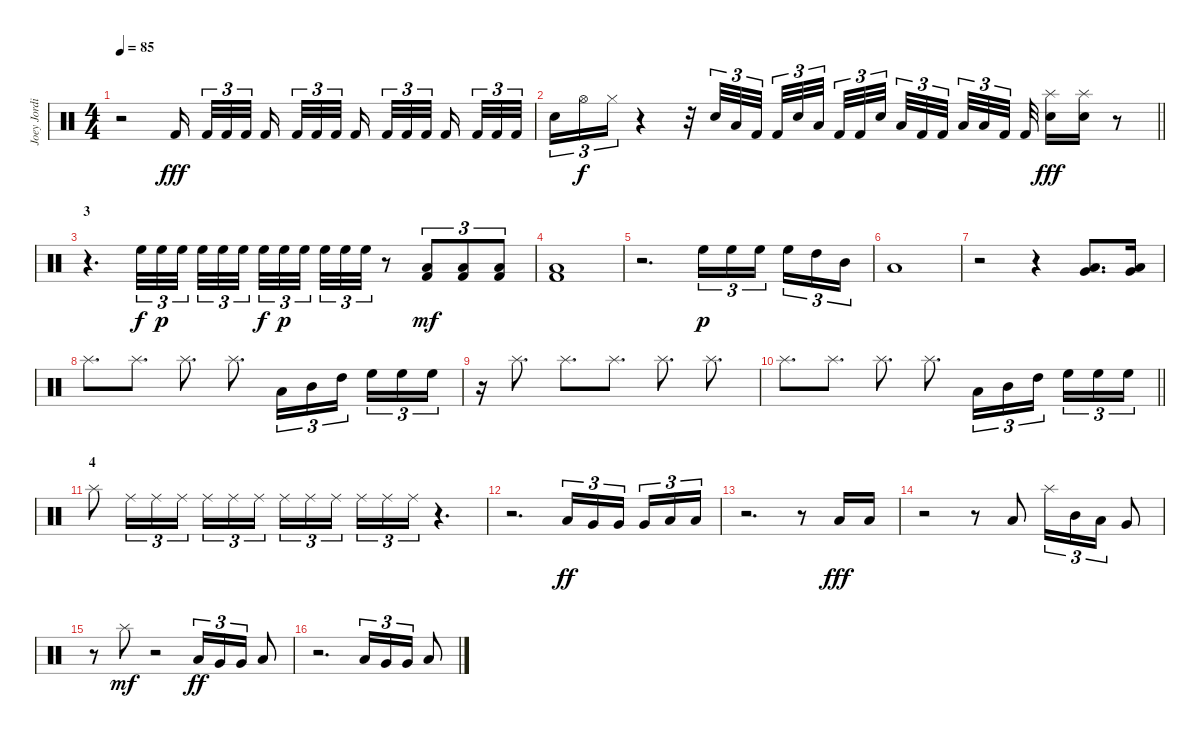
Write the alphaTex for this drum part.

\track ("Joey Jordison" "Joey Jordi") {instrument percussion}
\staff {score}
\articulation defaults
\ts (4 4)
\tempo 85
\clef neutral
\ks c
r.2{dy fff} "Kick (hit) 2".16{beam splitsecondary} "Kick (hit) 2".32{tu (3 2)} "Kick (hit) 2".32{tu (3 2)} "Kick (hit) 2".32{tu (3 2) beam splitsecondary} "Kick (hit) 2".16{beam splitsecondary} "Kick (hit) 2".32{tu (3 2)} "Kick (hit) 2".32{tu (3 2)} "Kick (hit) 2".32{tu (3 2)} "Kick (hit) 2".16{beam splitsecondary} "Kick (hit) 2".32{tu (3 2)} "Kick (hit) 2".32{tu (3 2)} "Kick (hit) 2".32{tu (3 2) beam splitsecondary} "Kick (hit) 2".16{beam splitsecondary} "Kick (hit) 2".32{tu (3 2)} "Kick (hit) 2".32{tu (3 2)} "Kick (hit) 2".32{tu (3 2)} |
\barLineRight lightlight "Electric Snare (hit)".16{tu (3 2)} "Hi-Hat (open)".16{tu (3 2) dy f} "Hi-Hat (closed)".16{tu (3 2)}
r.4 r.32 "Electric Snare (hit)".32{tu (3 2)} "Low Floor Tom (hit)".32{tu (3 2)} "Kick (hit) 2".32{tu (3 2) beam splitsecondary} "Kick (hit) 2".32{tu (3 2)} "Electric Snare (hit)".32{tu (3 2)} "Low Floor Tom (hit)".32{tu (3 2) beam splitsecondary} "Kick (hit) 2".32{tu (3 2)} "Kick (hit) 2".32{tu (3 2)} "Electric Snare (hit)".32{tu (3 2) beam splitsecondary} "Low Floor Tom (hit)".32{tu (3 2)} "Kick (hit) 2".32{tu (3 2)} "Kick (hit) 2".32{tu (3 2) beam splitsecondary} "Low Floor Tom (hit)".32{tu (3 2)} "Low Floor Tom (hit)".32{tu (3 2)} "Kick (hit) 2".32{tu (3 2) beam splitsecondary} "Kick (hit) 2".32 ("Splash (hit)" "Electric Snare (hit)").16{dy fff} ("Splash (hit)" "Electric Snare (hit)").16 r.8 |
\section ("" "3")
r.4{d} "High Floor Tom (hit)".32{tu (3 2) dy f} "High Floor Tom (hit)".32{tu (3 2) dy p} "High Floor Tom (hit)".32{tu (3 2) beam splitsecondary} "High Floor Tom (hit)".32{tu (3 2)} "High Floor Tom (hit)".32{tu (3 2)} "High Floor Tom (hit)".32{tu (3 2)} "High Floor Tom (hit)".32{tu (3 2) dy f} "High Floor Tom (hit)".32{tu (3 2) dy p} "High Floor Tom (hit)".32{tu (3 2) beam splitsecondary} "High Floor Tom (hit)".32{tu (3 2)} "High Floor Tom (hit)".32{tu (3 2)} "High Floor Tom (hit)".32{tu (3 2)} r.8 ("Low Floor Tom (hit)" "Kick (hit) 2").8{tu (3 2) dy mf} ("Low Floor Tom (hit)" "Kick (hit) 2").8{tu (3 2)} ("Low Floor Tom (hit)" "Kick (hit) 2").8{tu (3 2)} |
("Low Floor Tom (hit)" "Kick (hit) 2").1 |
r.2{d} "High Floor Tom (hit)".16{tu (3 2) dy p} "High Floor Tom (hit)".16{tu (3 2)} "High Floor Tom (hit)".16{tu (3 2) beam splitsecondary} "High Floor Tom (hit)".16{tu (3 2)} "High Tom (hit)".16{tu (3 2)} "Mid Tom (hit)".16{tu (3 2)} |
"Low Tom (hit)".1 |
r.2 r.4 ("Very Low Tom (hit)" "Low Floor Tom (hit)").8{d} ("Very Low Tom (hit)" "Low Floor Tom (hit)").16 |
"Splash (hit)".8{d} "Splash (hit)".8{d} "Splash (hit)".8{d} "Splash (hit)".8{d} "Low Tom (hit)".16{tu (3 2)} "Mid Tom (hit)".16{tu (3 2)} "High Tom (hit)".16{tu (3 2) beam splitsecondary} "High Floor Tom (hit)".16{tu (3 2)} "High Floor Tom (hit)".16{tu (3 2)} "High Floor Tom (hit)".16{tu (3 2)} |
r.16 "Splash (hit)".8{d} "Splash (hit)".8{d} "Splash (hit)".8{d} "Splash (hit)".8{d} "Splash (hit)".8{d} |
\barLineRight lightlight "Splash (hit)".8{d} "Splash (hit)".8{d} "Splash (hit)".8{d} "Splash (hit)".8{d} "Low Tom (hit)".16{tu (3 2)} "Mid Tom (hit)".16{tu (3 2)} "High Tom (hit)".16{tu (3 2) beam splitsecondary} "High Floor Tom (hit)".16{tu (3 2)} "High Floor Tom (hit)".16{tu (3 2)} "High Floor Tom (hit)".16{tu (3 2)}
|
\section ("" "4")
"Splash (hit)".8 "Ride (middle)".16{tu (3 2)} "Ride (middle)".16{tu (3 2)} "Ride (middle)".16{tu (3 2)} "Ride (middle)".16{tu (3 2)} "Ride (middle)".16{tu (3 2)} "Ride (middle)".16{tu (3 2) beam splitsecondary} "Ride (middle)".16{tu (3 2)} "Ride (middle)".16{tu (3 2)} "Ride (middle)".16{tu (3 2)} "Ride (middle)".16{tu (3 2)} "Ride (middle)".16{tu (3 2)} "Ride (middle)".16{tu (3 2)} r.4{d} |
r.2{d} "Low Tom (hit)".16{tu (3 2) dy ff} "Very Low Tom (hit)".16{tu (3 2)} "Very Low Tom (hit)".16{tu (3 2) beam splitsecondary} "Very Low Tom (hit)".16{tu (3 2)} "Low Floor Tom (hit)".16{tu (3 2)} "Low Floor Tom (hit)".16{tu (3 2)} |
r.2{d} r.8 "Low Floor Tom (hit)".16{dy fff} "Low Floor Tom (hit)".16 |
r.2 r.8 "Low Floor Tom (hit)".8 "Splash (hit)".16{tu (3 2)} "Mid Tom (hit)".16{tu (3 2)} "Low Tom (hit)".16{tu (3 2)} "Very Low Tom (hit)".8 |
r.8 "Splash (hit)".8{dy mf} r.2 "Low Tom (hit)".16{tu (3 2) dy ff} "Very Low Tom (hit)".16{tu (3 2)} "Very Low Tom (hit)".16{tu (3 2)} "Low Floor Tom (hit)".8 |
r.2{d} "Low Tom (hit)".16{tu (3 2)} "Very Low Tom (hit)".16{tu (3 2)} "Very Low Tom (hit)".16{tu (3 2)} "Low Floor Tom (hit)".8
